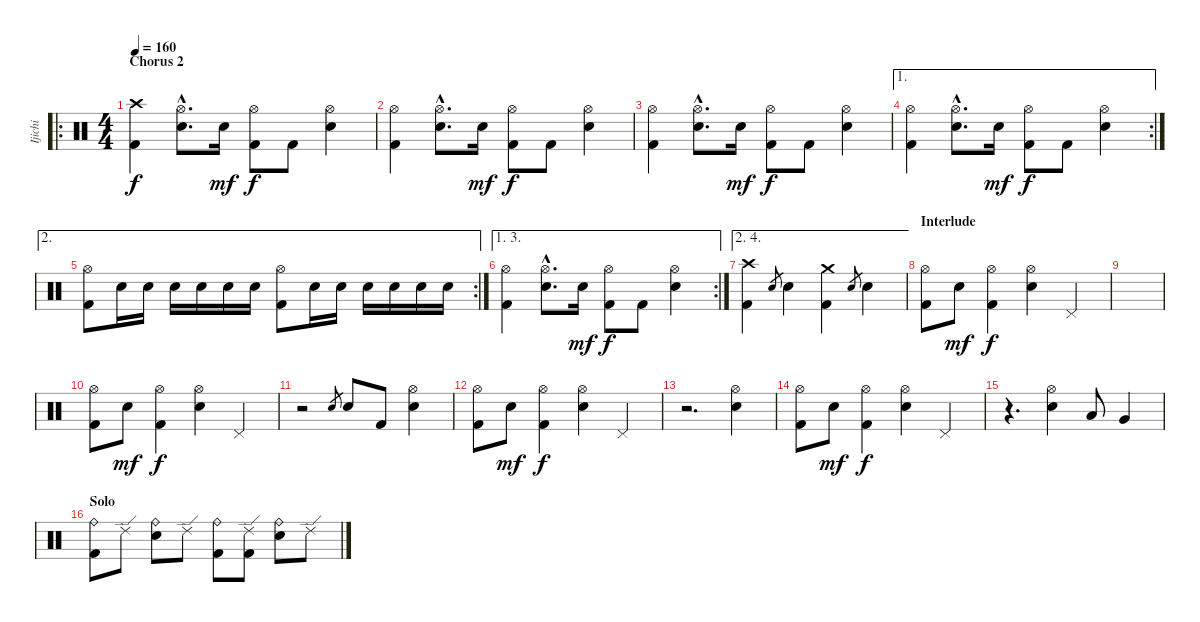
\track ("Ijichi" "Ijichi") {instrument percussion}
\staff {score}
\articulation defaults
\ro
\ts (4 4)
\section ("" "Chorus 2")
\tempo 160
\clef neutral
\ks c
("Kick (hit) 2" "Crash high (hit)").4{dy f} ("Electric Snare (hit)"{hac} "Hi-Hat (open)"{hac}).8{d} "Electric Snare (hit)".16{dy mf} ("Kick (hit) 2" "Hi-Hat (open)").8{dy f} "Kick (hit) 2".8 ("Electric Snare (hit)" "Hi-Hat (open)").4 |
("Kick (hit) 2" "Hi-Hat (open)").4 ("Electric Snare (hit)"{hac} "Hi-Hat (open)"{hac}).8{d} "Electric Snare (hit)".16{dy mf} ("Kick (hit) 2" "Hi-Hat (open)").8{dy f} "Kick (hit) 2".8 ("Electric Snare (hit)" "Hi-Hat (open)").4 |
("Kick (hit) 2" "Hi-Hat (open)").4 ("Electric Snare (hit)"{hac} "Hi-Hat (open)"{hac}).8{d} "Electric Snare (hit)".16{dy mf} ("Kick (hit) 2" "Hi-Hat (open)").8{dy f} "Kick (hit) 2".8 ("Electric Snare (hit)" "Hi-Hat (open)").4 |
\ae 1
\rc 2
("Kick (hit) 2" "Hi-Hat (open)").4 ("Electric Snare (hit)"{hac} "Hi-Hat (open)"{hac}).8{d} "Electric Snare (hit)".16{dy mf} ("Kick (hit) 2" "Hi-Hat (open)").8{dy f} "Kick (hit) 2".8 ("Electric Snare (hit)" "Hi-Hat (open)").4 |
\ae 2
\rc 2
("Kick (hit) 2" "Hi-Hat (open)").8 "Electric Snare (hit)".16 "Electric Snare (hit)".16 "Electric Snare (hit)".16 "Electric Snare (hit)".16 "Electric Snare (hit)".16 "Electric Snare (hit)".16 ("Kick (hit) 2" "Hi-Hat (open)").8 "Electric Snare (hit)".16 "Electric Snare (hit)".16 "Electric Snare (hit)".16 "Electric Snare (hit)".16 "Electric Snare (hit)".16 "Electric Snare (hit)".16 |
\ae (1 3)
\rc 2
("Kick (hit) 2" "Hi-Hat (open)").4 ("Electric Snare (hit)"{hac} "Hi-Hat (open)"{hac}).8{d} "Electric Snare (hit)".16{dy mf} ("Kick (hit) 2" "Hi-Hat (open)").8{dy f} "Kick (hit) 2".8 ("Electric Snare (hit)" "Hi-Hat (open)").4 |
\ae (2 4)
("Kick (hit) 2" "Crash high (hit)").4 "Electric Snare (hit)".8{gr} "Electric Snare (hit)".4 ("Kick (hit) 2" "Crash medium (hit)").4 "Electric Snare (hit)".8{gr} "Electric Snare (hit)".4 |
\section ("" "Interlude")
("Kick (hit) 2" "Hi-Hat (open)").8 "Electric Snare (hit)".8{dy mf} ("Kick (hit) 2" "Hi-Hat (open)").4{dy f} ("Electric Snare (hit)" "Hi-Hat (open)").4 "Pedal Hi-Hat (hit)".4 |
|
("Kick (hit) 2" "Hi-Hat (open)").8 "Electric Snare (hit)".8{dy mf} ("Kick (hit) 2" "Hi-Hat (open)").4{dy f} ("Electric Snare (hit)" "Hi-Hat (open)").4 "Pedal Hi-Hat (hit)".4 |
r.2 "Electric Snare (hit)".8{gr} "Electric Snare (hit)".8 "Kick (hit) 2".8 ("Electric Snare (hit)" "Hi-Hat (open)").4 |
("Kick (hit) 2" "Hi-Hat (open)").8 "Electric Snare (hit)".8{dy mf} ("Kick (hit) 2" "Hi-Hat (open)").4{dy f} ("Electric Snare (hit)" "Hi-Hat (open)").4 "Pedal Hi-Hat (hit)".4 |
r.2{d} ("Electric Snare (hit)" "Hi-Hat (open)").4 |
("Kick (hit) 2" "Hi-Hat (open)").8 "Electric Snare (hit)".8{dy mf} ("Kick (hit) 2" "Hi-Hat (open)").4{dy f} ("Electric Snare (hit)" "Hi-Hat (open)").4 "Pedal Hi-Hat (hit)".4 |
r.4{d} ("Electric Snare (hit)" "Hi-Hat (open)").4 "Low Tom (hit)".8 "Very Low Tom (hit)".4 |
\section ("" "Solo")
("Kick (hit) 2" "Ride (bell)").8 "Ride (edge) 2".8 ("Electric Snare (hit)" "Ride (bell)").8 "Ride (edge) 2".8 ("Kick (hit) 2" "Ride (bell)").8 ("Kick (hit) 2" "Ride (edge) 2").8 ("Electric Snare (hit)" "Ride (bell)").8 "Ride (edge) 2".8
